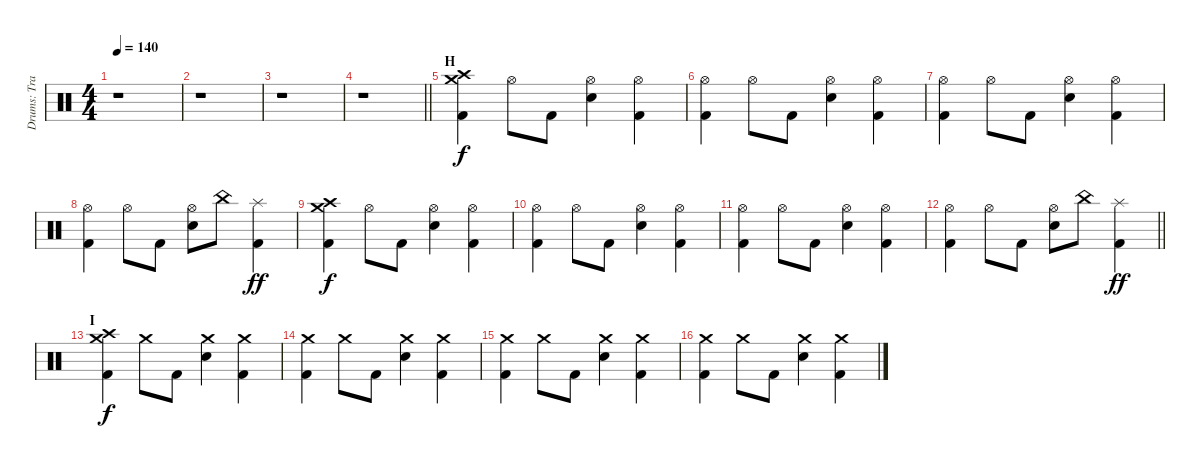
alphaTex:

\track ("Drums: Travis Clarke" "Drums: Tra") {instrument percussion}
\staff {score}
\articulation defaults
\ts (4 4)
\tempo 140
\clef neutral
\ks c
r.1{dy f} |
r.1 |
r.1 |
\barLineRight lightlight
r.1 |
\section ("" "H")
("Kick (hit) 2" "Crash high (hit)" "Crash medium (hit)").4 "Hi-Hat (open)".8 "Kick (hit) 2".8 ("Snare (hit) 2" "Hi-Hat (open)").4 ("Kick (hit) 2" "Hi-Hat (open)").4 |
("Kick (hit) 2" "Hi-Hat (open)").4 "Hi-Hat (open)".8 "Kick (hit) 2".8 ("Snare (hit) 2" "Hi-Hat (open)").4 ("Kick (hit) 2" "Hi-Hat (open)").4 |
("Kick (hit) 2" "Hi-Hat (open)").4 "Hi-Hat (open)".8 "Kick (hit) 2".8 ("Snare (hit) 2" "Hi-Hat (open)").4 ("Kick (hit) 2" "Hi-Hat (open)").4 |
("Kick (hit) 2" "Hi-Hat (open)").4 "Hi-Hat (open)".8 "Kick (hit) 2".8 ("Snare (hit) 2" "Hi-Hat (open)").8 "China (hit)".8 ("Kick (hit) 2" "Splash (hit)").4{dy ff} |
("Kick (hit) 2" "Crash high (hit)" "Crash medium (hit)").4{dy f} "Hi-Hat (open)".8 "Kick (hit) 2".8 ("Snare (hit) 2" "Hi-Hat (open)").4 ("Kick (hit) 2" "Hi-Hat (open)").4 |
("Kick (hit) 2" "Hi-Hat (open)").4 "Hi-Hat (open)".8 "Kick (hit) 2".8 ("Snare (hit) 2" "Hi-Hat (open)").4 ("Kick (hit) 2" "Hi-Hat (open)").4 |
("Kick (hit) 2" "Hi-Hat (open)").4 "Hi-Hat (open)".8 "Kick (hit) 2".8 ("Snare (hit) 2" "Hi-Hat (open)").4 ("Kick (hit) 2" "Hi-Hat (open)").4 |
\barLineRight lightlight
("Kick (hit) 2" "Hi-Hat (open)").4 "Hi-Hat (open)".8 "Kick (hit) 2".8 ("Snare (hit) 2" "Hi-Hat (open)").8 "China (hit)".8 ("Kick (hit) 2" "Splash (hit)").4{dy ff} |
\section ("" "I")
("Kick (hit) 2" "Crash high (hit)" "Crash medium (hit)").4{dy f} "Crash medium (hit)".8 "Kick (hit) 2".8 ("Snare (hit) 2" "Crash medium (hit)").4 ("Kick (hit) 2" "Crash medium (hit)").4 |
("Kick (hit) 2" "Crash medium (hit)").4 "Crash medium (hit)".8 "Kick (hit) 2".8 ("Snare (hit) 2" "Crash medium (hit)").4 ("Kick (hit) 2" "Crash medium (hit)").4 |
("Kick (hit) 2" "Crash medium (hit)").4 "Crash medium (hit)".8 "Kick (hit) 2".8 ("Snare (hit) 2" "Crash medium (hit)").4 ("Kick (hit) 2" "Crash medium (hit)").4 |
("Kick (hit) 2" "Crash medium (hit)").4 "Crash medium (hit)".8 "Kick (hit) 2".8 ("Snare (hit) 2" "Crash medium (hit)").4 ("Kick (hit) 2" "Crash medium (hit)").4
